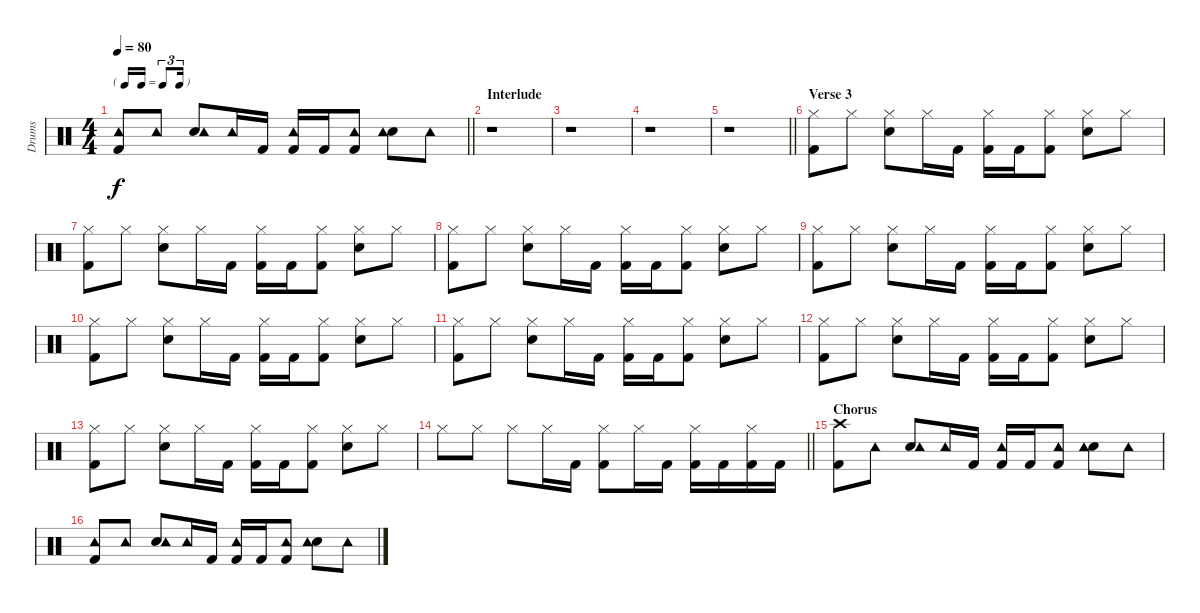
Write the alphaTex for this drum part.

\track ("Drums" "Drums") {instrument percussion}
\staff {score}
\articulation defaults
\ts (4 4)
\tf triplet16th
\tempo 80
\clef neutral
\barLineRight lightlight
\ks c
("Tambourine (hit)" "Kick (hit) 2").8{dy f} "Tambourine (hit)".8 ("Electric Snare (hit)" "Tambourine (hit)").8 "Tambourine (hit)".16 "Kick (hit) 2".16 ("Kick (hit) 2" "Tambourine (hit)").16 "Kick (hit) 2".16 ("Kick (hit) 2" "Tambourine (hit)").8 ("Electric Snare (hit)" "Tambourine (hit)").8 "Tambourine (hit)".8 |
\section ("" "Interlude")
r.1 |
r.1 |
r.1 |
\barLineRight lightlight
r.1 |
\section ("" "Verse 3")
("Hi-Hat (closed)" "Kick (hit) 2").8 "Hi-Hat (closed)".8 ("Electric Snare (hit)" "Hi-Hat (closed)").8 "Hi-Hat (closed)".16 "Kick (hit) 2".16 ("Kick (hit) 2" "Hi-Hat (closed)").16 "Kick (hit) 2".16 ("Kick (hit) 2" "Hi-Hat (closed)").8 ("Electric Snare (hit)" "Hi-Hat (closed)").8 "Hi-Hat (closed)".8 |
("Hi-Hat (closed)" "Kick (hit) 2").8 "Hi-Hat (closed)".8 ("Electric Snare (hit)" "Hi-Hat (closed)").8 "Hi-Hat (closed)".16 "Kick (hit) 2".16 ("Kick (hit) 2" "Hi-Hat (closed)").16 "Kick (hit) 2".16 ("Kick (hit) 2" "Hi-Hat (closed)").8 ("Electric Snare (hit)" "Hi-Hat (closed)").8 "Hi-Hat (closed)".8 |
("Hi-Hat (closed)" "Kick (hit) 2").8 "Hi-Hat (closed)".8 ("Electric Snare (hit)" "Hi-Hat (closed)").8 "Hi-Hat (closed)".16 "Kick (hit) 2".16 ("Kick (hit) 2" "Hi-Hat (closed)").16 "Kick (hit) 2".16 ("Kick (hit) 2" "Hi-Hat (closed)").8 ("Electric Snare (hit)" "Hi-Hat (closed)").8 "Hi-Hat (closed)".8 |
("Hi-Hat (closed)" "Kick (hit) 2").8 "Hi-Hat (closed)".8 ("Electric Snare (hit)" "Hi-Hat (closed)").8 "Hi-Hat (closed)".16 "Kick (hit) 2".16 ("Kick (hit) 2" "Hi-Hat (closed)").16 "Kick (hit) 2".16 ("Kick (hit) 2" "Hi-Hat (closed)").8 ("Electric Snare (hit)" "Hi-Hat (closed)").8 "Hi-Hat (closed)".8 |
("Hi-Hat (closed)" "Kick (hit) 2").8 "Hi-Hat (closed)".8 ("Electric Snare (hit)" "Hi-Hat (closed)").8 "Hi-Hat (closed)".16 "Kick (hit) 2".16 ("Kick (hit) 2" "Hi-Hat (closed)").16 "Kick (hit) 2".16 ("Kick (hit) 2" "Hi-Hat (closed)").8 ("Electric Snare (hit)" "Hi-Hat (closed)").8 "Hi-Hat (closed)".8 |
("Hi-Hat (closed)" "Kick (hit) 2").8 "Hi-Hat (closed)".8 ("Electric Snare (hit)" "Hi-Hat (closed)").8 "Hi-Hat (closed)".16 "Kick (hit) 2".16 ("Kick (hit) 2" "Hi-Hat (closed)").16 "Kick (hit) 2".16 ("Kick (hit) 2" "Hi-Hat (closed)").8 ("Electric Snare (hit)" "Hi-Hat (closed)").8 "Hi-Hat (closed)".8 |
("Hi-Hat (closed)" "Kick (hit) 2").8 "Hi-Hat (closed)".8 ("Electric Snare (hit)" "Hi-Hat (closed)").8 "Hi-Hat (closed)".16 "Kick (hit) 2".16 ("Kick (hit) 2" "Hi-Hat (closed)").16 "Kick (hit) 2".16 ("Kick (hit) 2" "Hi-Hat (closed)").8 ("Electric Snare (hit)" "Hi-Hat (closed)").8 "Hi-Hat (closed)".8 |
("Hi-Hat (closed)" "Kick (hit) 2").8 "Hi-Hat (closed)".8 ("Electric Snare (hit)" "Hi-Hat (closed)").8 "Hi-Hat (closed)".16 "Kick (hit) 2".16 ("Kick (hit) 2" "Hi-Hat (closed)").16 "Kick (hit) 2".16 ("Kick (hit) 2" "Hi-Hat (closed)").8 ("Electric Snare (hit)" "Hi-Hat (closed)").8 "Hi-Hat (closed)".8 |
\barLineRight lightlight "Hi-Hat (closed)".8 "Hi-Hat (closed)".8 "Hi-Hat (closed)".8 "Hi-Hat (closed)".16 "Kick (hit) 2".16
("Kick (hit) 2" "Hi-Hat (closed)").8 "Hi-Hat (closed)".16 "Kick (hit) 2".16 ("Kick (hit) 2" "Hi-Hat (closed)").16 "Kick (hit) 2".16 ("Kick (hit) 2" "Hi-Hat (closed)").16 "Kick (hit) 2".16 |
\section ("" "Chorus")
("Crash high (hit)" "Kick (hit) 2").8 "Tambourine (hit)".8 ("Electric Snare (hit)" "Tambourine (hit)").8 "Tambourine (hit)".16 "Kick (hit) 2".16 ("Kick (hit) 2" "Tambourine (hit)").16 "Kick (hit) 2".16 ("Kick (hit) 2" "Tambourine (hit)").8 ("Electric Snare (hit)" "Tambourine (hit)").8 "Tambourine (hit)".8 |
("Tambourine (hit)" "Kick (hit) 2").8 "Tambourine (hit)".8 ("Electric Snare (hit)" "Tambourine (hit)").8 "Tambourine (hit)".16 "Kick (hit) 2".16 ("Kick (hit) 2" "Tambourine (hit)").16 "Kick (hit) 2".16 ("Kick (hit) 2" "Tambourine (hit)").8 ("Electric Snare (hit)" "Tambourine (hit)").8 "Tambourine (hit)".8
